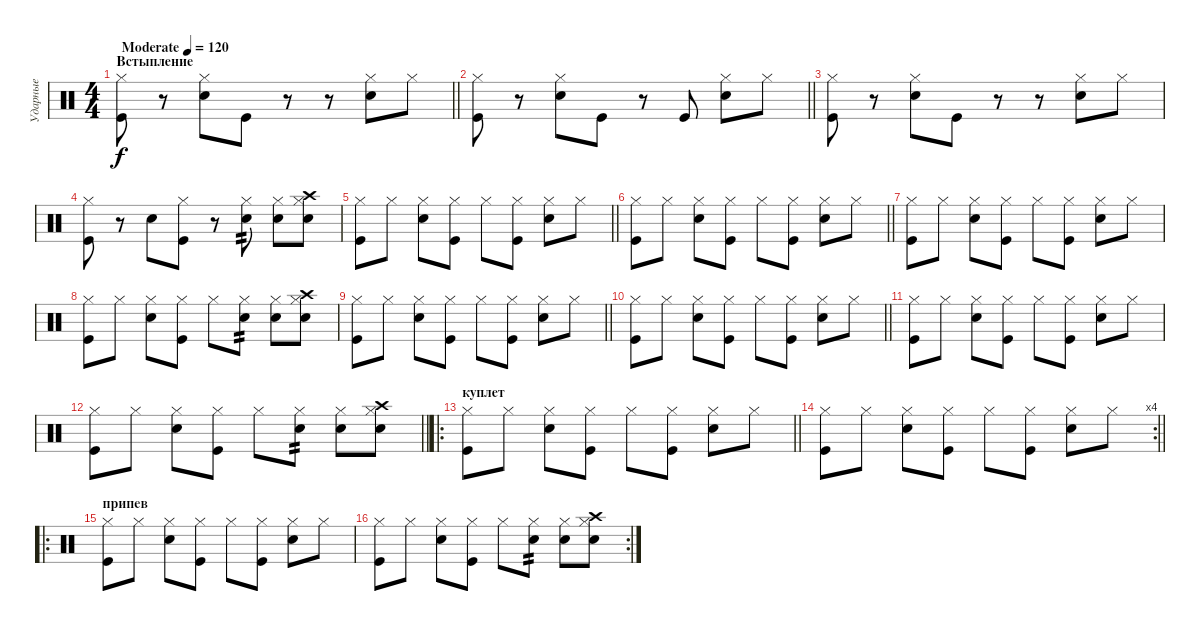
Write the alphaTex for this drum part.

\track ("Ударные" "Ударные") {instrument percussion}
\staff {score}
\articulation defaults
\ts (4 4)
\section ("" "Встыпление")
\tempo (120 "Moderate")
\clef neutral
\barLineRight lightlight
\ks c
("Kick (hit)" "Hi-Hat (closed)").8{dy f} r.8 ("Electric Snare (hit)" "Hi-Hat (closed)").8 "Kick (hit)".8 r.8 r.8 ("Electric Snare (hit)" "Hi-Hat (closed)").8 "Hi-Hat (closed)".8 |
\barLineRight lightlight
("Kick (hit)" "Hi-Hat (closed)").8 r.8 ("Electric Snare (hit)" "Hi-Hat (closed)").8 "Kick (hit)".8 r.8 "Kick (hit)".8 ("Electric Snare (hit)" "Hi-Hat (closed)").8 "Hi-Hat (closed)".8 |
("Kick (hit)" "Hi-Hat (closed)").8 r.8 ("Electric Snare (hit)" "Hi-Hat (closed)").8 "Kick (hit)".8 r.8 r.8 ("Electric Snare (hit)" "Hi-Hat (closed)").8 "Hi-Hat (closed)".8 |
("Kick (hit)" "Hi-Hat (closed)").8 r.8 "Electric Snare (hit)".8 ("Kick (hit)" "Hi-Hat (closed)").8 r.8 ("Snare (hit) 2" "Hi-Hat (closed)").8{tp 2} ("Electric Snare (hit)" "Hi-Hat (closed)").8 ("Snare (hit) 2" "Crash high (hit)" "Hi-Hat (closed)").8 |
\barLineRight lightlight
("Kick (hit)" "Hi-Hat (closed)").8 "Hi-Hat (closed)".8 ("Electric Snare (hit)" "Hi-Hat (closed)").8 ("Kick (hit)" "Hi-Hat (closed)").8 "Hi-Hat (closed)".8 ("Kick (hit)" "Hi-Hat (closed)").8 ("Electric Snare (hit)" "Hi-Hat (closed)").8 "Hi-Hat (closed)".8 |
\barLineRight lightlight
("Kick (hit)" "Hi-Hat (closed)").8 "Hi-Hat (closed)".8 ("Electric Snare (hit)" "Hi-Hat (closed)").8 ("Kick (hit)" "Hi-Hat (closed)").8 "Hi-Hat (closed)".8 ("Kick (hit)" "Hi-Hat (closed)").8 ("Electric Snare (hit)" "Hi-Hat (closed)").8 "Hi-Hat (closed)".8 |
("Kick (hit)" "Hi-Hat (closed)").8 "Hi-Hat (closed)".8 ("Electric Snare (hit)" "Hi-Hat (closed)").8 ("Kick (hit)" "Hi-Hat (closed)").8 "Hi-Hat (closed)".8 ("Kick (hit)" "Hi-Hat (closed)").8 ("Electric Snare (hit)" "Hi-Hat (closed)").8 "Hi-Hat (closed)".8 |
("Kick (hit)" "Hi-Hat (closed)").8 "Hi-Hat (closed)".8 ("Electric Snare (hit)" "Hi-Hat (closed)").8 ("Kick (hit)" "Hi-Hat (closed)").8 "Hi-Hat (closed)".8 ("Snare (hit) 2" "Hi-Hat (closed)").8{tp 2} ("Electric Snare (hit)" "Hi-Hat (closed)").8 ("Snare (hit) 2" "Crash high (hit)" "Hi-Hat (closed)").8 |
\barLineRight lightlight
("Kick (hit)" "Hi-Hat (closed)").8 "Hi-Hat (closed)".8 ("Electric Snare (hit)" "Hi-Hat (closed)").8 ("Kick (hit)" "Hi-Hat (closed)").8 "Hi-Hat (closed)".8 ("Kick (hit)" "Hi-Hat (closed)").8 ("Electric Snare (hit)" "Hi-Hat (closed)").8 "Hi-Hat (closed)".8 |
\barLineRight lightlight
("Kick (hit)" "Hi-Hat (closed)").8 "Hi-Hat (closed)".8 ("Electric Snare (hit)" "Hi-Hat (closed)").8 ("Kick (hit)" "Hi-Hat (closed)").8 "Hi-Hat (closed)".8 ("Kick (hit)" "Hi-Hat (closed)").8 ("Electric Snare (hit)" "Hi-Hat (closed)").8 "Hi-Hat (closed)".8 |
("Kick (hit)" "Hi-Hat (closed)").8 "Hi-Hat (closed)".8 ("Electric Snare (hit)" "Hi-Hat (closed)").8 ("Kick (hit)" "Hi-Hat (closed)").8 "Hi-Hat (closed)".8 ("Kick (hit)" "Hi-Hat (closed)").8 ("Electric Snare (hit)" "Hi-Hat (closed)").8 "Hi-Hat (closed)".8 |
\barLineRight lightlight
("Kick (hit)" "Hi-Hat (closed)").8 "Hi-Hat (closed)".8 ("Electric Snare (hit)" "Hi-Hat (closed)").8 ("Kick (hit)" "Hi-Hat (closed)").8 "Hi-Hat (closed)".8 ("Snare (hit) 2" "Hi-Hat (closed)").8{tp 2} ("Electric Snare (hit)" "Hi-Hat (closed)").8 ("Snare (hit) 2" "Crash high (hit)" "Hi-Hat (closed)").8 |
\ro
\section ("" "куплет")
\barLineRight lightlight
("Kick (hit)" "Hi-Hat (closed)").8 "Hi-Hat (closed)".8 ("Electric Snare (hit)" "Hi-Hat (closed)").8 ("Kick (hit)" "Hi-Hat (closed)").8 "Hi-Hat (closed)".8 ("Kick (hit)" "Hi-Hat (closed)").8 ("Electric Snare (hit)" "Hi-Hat (closed)").8 "Hi-Hat (closed)".8 |
\rc 4
\barLineRight lightlight
("Kick (hit)" "Hi-Hat (closed)").8 "Hi-Hat (closed)".8 ("Electric Snare (hit)" "Hi-Hat (closed)").8 ("Kick (hit)" "Hi-Hat (closed)").8 "Hi-Hat (closed)".8 ("Kick (hit)" "Hi-Hat (closed)").8 ("Electric Snare (hit)" "Hi-Hat (closed)").8 "Hi-Hat (closed)".8 |
\ro
\section ("" "припев")
("Kick (hit)" "Hi-Hat (closed)").8 "Hi-Hat (closed)".8 ("Electric Snare (hit)" "Hi-Hat (closed)").8 ("Kick (hit)" "Hi-Hat (closed)").8 "Hi-Hat (closed)".8 ("Kick (hit)" "Hi-Hat (closed)").8 ("Electric Snare (hit)" "Hi-Hat (closed)").8 "Hi-Hat (closed)".8 |
\rc 2
("Kick (hit)" "Hi-Hat (closed)").8 "Hi-Hat (closed)".8 ("Electric Snare (hit)" "Hi-Hat (closed)").8 ("Kick (hit)" "Hi-Hat (closed)").8 "Hi-Hat (closed)".8 ("Snare (hit) 2" "Hi-Hat (closed)").8{tp 2} ("Electric Snare (hit)" "Hi-Hat (closed)").8 ("Snare (hit) 2" "Crash high (hit)" "Hi-Hat (closed)").8
